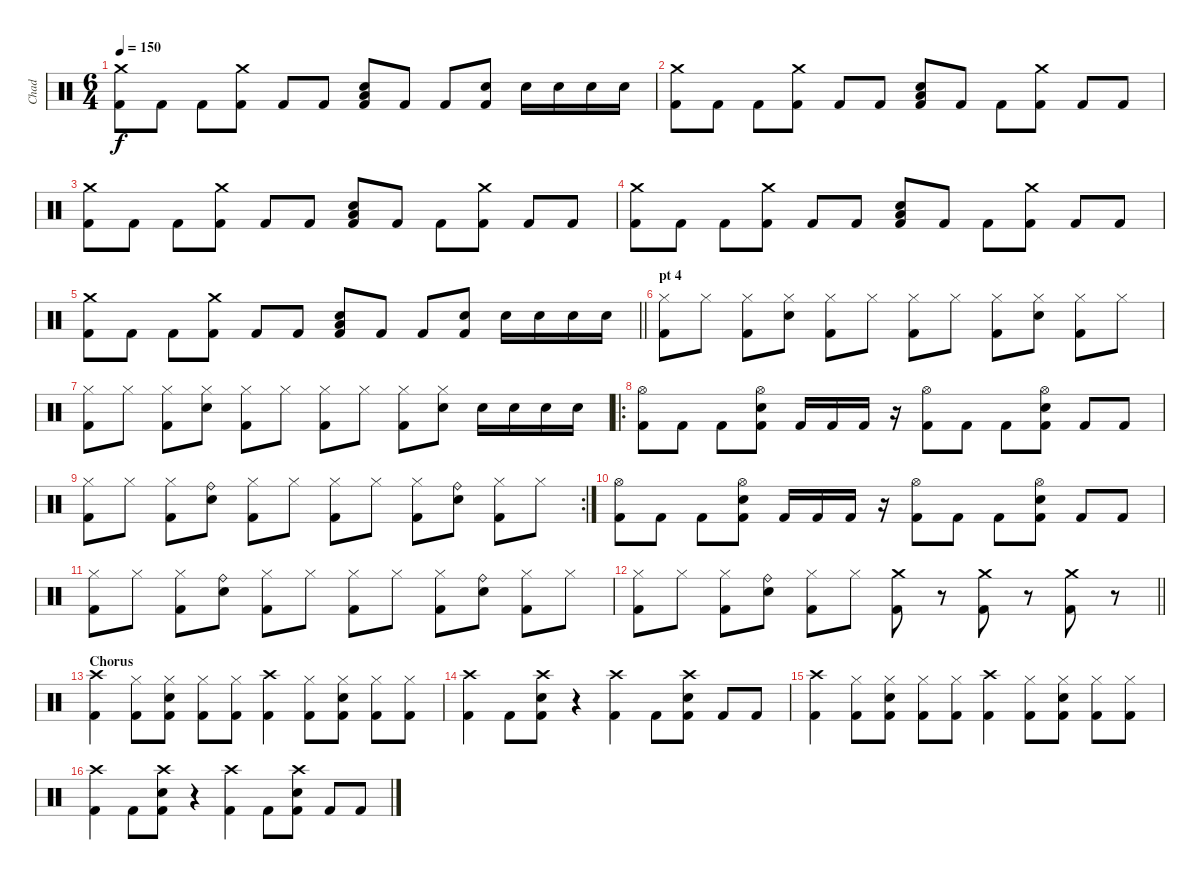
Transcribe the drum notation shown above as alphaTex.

\track ("Chad" "Chad") {instrument percussion}
\staff {score}
\articulation defaults
\ts (6 4)
\tempo 150
\clef neutral
\ks c
("Crash medium (hit)" "Kick (hit) 2").8{dy f} "Kick (hit) 2".8 "Kick (hit) 2".8 ("Crash medium (hit)" "Kick (hit) 2").8 "Kick (hit) 2".8 "Kick (hit) 2".8 ("Electric Snare (hit)" "Low Floor Tom (hit)" "Kick (hit) 2").8{volume 16} "Kick (hit) 2".8{volume 13} "Kick (hit) 2".8 ("Electric Snare (hit)" "Kick (hit) 2").8 "Electric Snare (hit)".16 "Electric Snare (hit)".16 "Electric Snare (hit)".16 "Electric Snare (hit)".16 |
("Crash medium (hit)" "Kick (hit) 2").8 "Kick (hit) 2".8 "Kick (hit) 2".8 ("Crash medium (hit)" "Kick (hit) 2").8 "Kick (hit) 2".8 "Kick (hit) 2".8 ("Electric Snare (hit)" "Low Floor Tom (hit)" "Kick (hit) 2").8{volume 16} "Kick (hit) 2".8{volume 10} "Kick (hit) 2".8 ("Crash medium (hit)" "Kick (hit) 2").8 "Kick (hit) 2".8 "Kick (hit) 2".8 |
("Crash medium (hit)" "Kick (hit) 2").8 "Kick (hit) 2".8 "Kick (hit) 2".8 ("Crash medium (hit)" "Kick (hit) 2").8 "Kick (hit) 2".8 "Kick (hit) 2".8 ("Electric Snare (hit)" "Low Floor Tom (hit)" "Kick (hit) 2").8{volume 16} "Kick (hit) 2".8{volume 13} "Kick (hit) 2".8 ("Crash medium (hit)" "Kick (hit) 2").8 "Kick (hit) 2".8 "Kick (hit) 2".8 |
("Crash medium (hit)" "Kick (hit) 2").8 "Kick (hit) 2".8 "Kick (hit) 2".8 ("Crash medium (hit)" "Kick (hit) 2").8 "Kick (hit) 2".8 "Kick (hit) 2".8 ("Electric Snare (hit)" "Low Floor Tom (hit)" "Kick (hit) 2").8{volume 16} "Kick (hit) 2".8{volume 13} "Kick (hit) 2".8 ("Crash medium (hit)" "Kick (hit) 2").8 "Kick (hit) 2".8 "Kick (hit) 2".8 |
\barLineRight lightlight
("Crash medium (hit)" "Kick (hit) 2").8 "Kick (hit) 2".8 "Kick (hit) 2".8 ("Crash medium (hit)" "Kick (hit) 2").8 "Kick (hit) 2".8 "Kick (hit) 2".8 ("Electric Snare (hit)" "Low Floor Tom (hit)" "Kick (hit) 2").8{volume 16} "Kick (hit) 2".8{volume 13} "Kick (hit) 2".8 ("Electric Snare (hit)" "Kick (hit) 2").8 "Electric Snare (hit)".16 "Electric Snare (hit)".16 "Electric Snare (hit)".16 "Electric Snare (hit)".16 |
\section ("" "pt 4")
("Hi-Hat (closed)" "Kick (hit) 2").8 "Hi-Hat (closed)".8 ("Hi-Hat (closed)" "Kick (hit) 2").8 ("Hi-Hat (closed)" "Electric Snare (hit)").8 ("Hi-Hat (closed)" "Kick (hit) 2").8 "Hi-Hat (closed)".8 ("Hi-Hat (closed)" "Kick (hit) 2").8 "Hi-Hat (closed)".8 ("Hi-Hat (closed)" "Kick (hit) 2").8 ("Hi-Hat (closed)" "Electric Snare (hit)").8 ("Hi-Hat (closed)" "Kick (hit) 2").8 "Hi-Hat (closed)".8 |
("Hi-Hat (closed)" "Kick (hit) 2").8 "Hi-Hat (closed)".8 ("Hi-Hat (closed)" "Kick (hit) 2").8 ("Hi-Hat (closed)" "Electric Snare (hit)").8 ("Hi-Hat (closed)" "Kick (hit) 2").8 "Hi-Hat (closed)".8 ("Hi-Hat (closed)" "Kick (hit) 2").8 "Hi-Hat (closed)".8 ("Hi-Hat (closed)" "Kick (hit) 2").8 ("Hi-Hat (closed)" "Electric Snare (hit)").8 "Electric Snare (hit)".16 "Electric Snare (hit)".16 "Electric Snare (hit)".16 "Electric Snare (hit)".16 |
\ro
("Hi-Hat (open)" "Kick (hit) 2").8 "Kick (hit) 2".8 "Kick (hit) 2".8 ("Hi-Hat (open)" "Electric Snare (hit)" "Kick (hit) 2").8 "Kick (hit) 2".16 "Kick (hit) 2".16 "Kick (hit) 2".16 r.16 ("Hi-Hat (open)" "Kick (hit) 2").8 "Kick (hit) 2".8 "Kick (hit) 2".8 ("Hi-Hat (open)" "Electric Snare (hit)" "Kick (hit) 2").8 "Kick (hit) 2".8 "Kick (hit) 2".8 |
\rc 2
("Hi-Hat (closed)" "Kick (hit) 2").8 "Hi-Hat (closed)".8 ("Hi-Hat (closed)" "Kick (hit) 2").8 ("Ride (bell)" "Electric Snare (hit)").8 ("Hi-Hat (closed)" "Kick (hit) 2").8 "Hi-Hat (closed)".8 ("Hi-Hat (closed)" "Kick (hit) 2").8 "Hi-Hat (closed)".8 ("Hi-Hat (closed)" "Kick (hit) 2").8 ("Ride (bell)" "Electric Snare (hit)").8 ("Hi-Hat (closed)" "Kick (hit) 2").8 "Hi-Hat (closed)".8 |
("Hi-Hat (open)" "Kick (hit) 2").8 "Kick (hit) 2".8 "Kick (hit) 2".8 ("Hi-Hat (open)" "Electric Snare (hit)" "Kick (hit) 2").8 "Kick (hit) 2".16 "Kick (hit) 2".16 "Kick (hit) 2".16 r.16 ("Hi-Hat (open)" "Kick (hit) 2").8 "Kick (hit) 2".8 "Kick (hit) 2".8 ("Hi-Hat (open)" "Electric Snare (hit)" "Kick (hit) 2").8 "Kick (hit) 2".8 "Kick (hit) 2".8 |
("Hi-Hat (closed)" "Kick (hit) 2").8 "Hi-Hat (closed)".8 ("Hi-Hat (closed)" "Kick (hit) 2").8 ("Ride (bell)" "Electric Snare (hit)").8 ("Hi-Hat (closed)" "Kick (hit) 2").8 "Hi-Hat (closed)".8 ("Hi-Hat (closed)" "Kick (hit) 2").8 "Hi-Hat (closed)".8 ("Hi-Hat (closed)" "Kick (hit) 2").8 ("Ride (bell)" "Electric Snare (hit)").8 ("Hi-Hat (closed)" "Kick (hit) 2").8 "Hi-Hat (closed)".8 |
\barLineRight lightlight
("Hi-Hat (closed)" "Kick (hit) 2").8 "Hi-Hat (closed)".8 ("Hi-Hat (closed)" "Kick (hit) 2").8 ("Ride (bell)" "Electric Snare (hit)").8 ("Hi-Hat (closed)" "Kick (hit) 2").8 "Hi-Hat (closed)".8 ("Crash medium (hit)" "Kick (hit) 2").8 r.8 ("Crash medium (hit)" "Kick (hit) 2").8 r.8 ("Crash medium (hit)" "Kick (hit) 2").8 r.8 |
\section ("" "Chorus")
("Crash high (hit)" "Kick (hit) 2").4 ("Hi-Hat (closed)" "Kick (hit) 2").8 ("Hi-Hat (closed)" "Electric Snare (hit)" "Kick (hit) 2").8 ("Hi-Hat (closed)" "Kick (hit) 2").8 ("Hi-Hat (closed)" "Kick (hit) 2").8 ("Crash high (hit)" "Kick (hit) 2").4 ("Hi-Hat (closed)" "Kick (hit) 2").8 ("Hi-Hat (closed)" "Electric Snare (hit)" "Kick (hit) 2").8 ("Hi-Hat (closed)" "Kick (hit) 2").8 ("Hi-Hat (closed)" "Kick (hit) 2").8 |
("Crash high (hit)" "Kick (hit) 2").4 "Kick (hit) 2".8 ("Crash high (hit)" "Electric Snare (hit)" "Kick (hit) 2").8 r.4 ("Crash high (hit)" "Kick (hit) 2").4 "Kick (hit) 2".8 ("Crash high (hit)" "Electric Snare (hit)" "Kick (hit) 2").8 "Kick (hit) 2".8 "Kick (hit) 2".8 |
("Crash high (hit)" "Kick (hit) 2").4 ("Hi-Hat (closed)" "Kick (hit) 2").8 ("Hi-Hat (closed)" "Electric Snare (hit)" "Kick (hit) 2").8 ("Hi-Hat (closed)" "Kick (hit) 2").8 ("Hi-Hat (closed)" "Kick (hit) 2").8 ("Crash high (hit)" "Kick (hit) 2").4 ("Hi-Hat (closed)" "Kick (hit) 2").8 ("Hi-Hat (closed)" "Electric Snare (hit)" "Kick (hit) 2").8 ("Hi-Hat (closed)" "Kick (hit) 2").8 ("Hi-Hat (closed)" "Kick (hit) 2").8 |
("Crash high (hit)" "Kick (hit) 2").4 "Kick (hit) 2".8 ("Crash high (hit)" "Electric Snare (hit)" "Kick (hit) 2").8 r.4 ("Crash high (hit)" "Kick (hit) 2").4 "Kick (hit) 2".8 ("Crash high (hit)" "Electric Snare (hit)" "Kick (hit) 2").8 "Kick (hit) 2".8 "Kick (hit) 2".8
